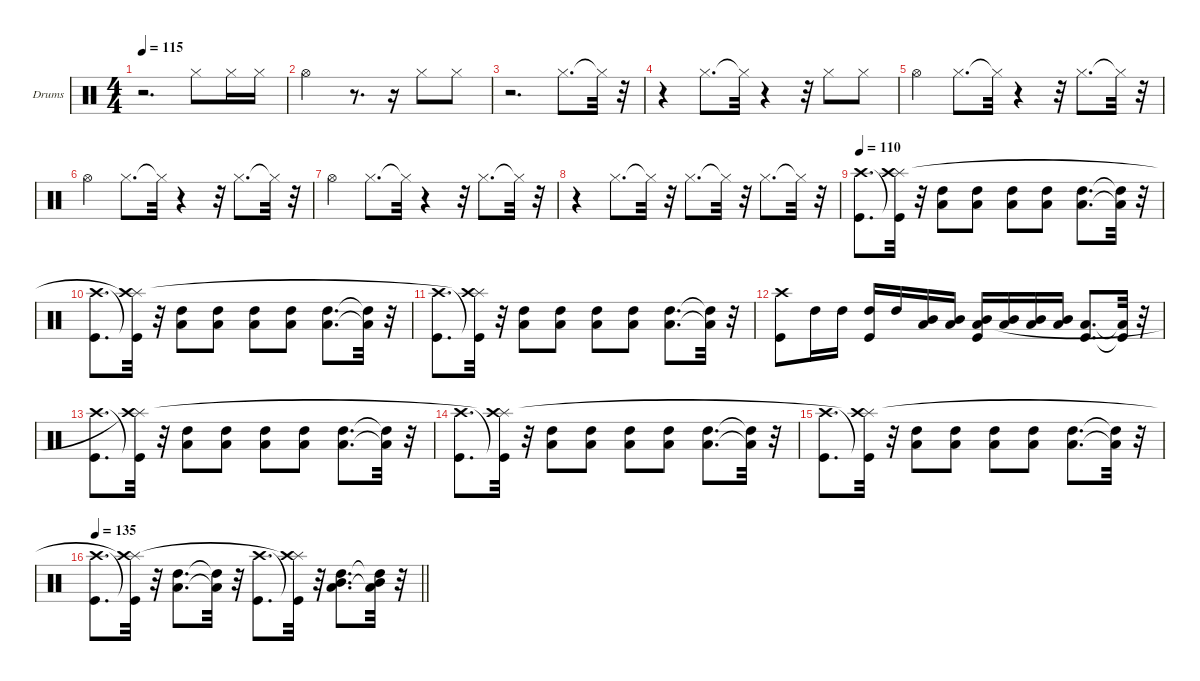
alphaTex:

\hideDynamics
\bracketExtendMode groupsimilarinstruments
\firstSystemTrackNameOrientation horizontal
\otherSystemsTrackNameOrientation horizontal
\track ("Drumkit" "Drums") {solo instrument percussion}
\staff {score}
\articulation defaults
\ts (4 4)
\tempo 115
\clef neutral
\scale
0.333333
\ks c
r.2{d dy fff} "Hi-Hat (closed)".8 "Hi-Hat (closed)".16 "Hi-Hat (closed)".16 |
\scale
0.333333 "Hi-Hat (open)".2 r.8{d} r.16 "Hi-Hat (closed)".8 "Hi-Hat (closed)".8 |
\scale
0.333333 r.2{d} "Hi-Hat (closed)".8{d} "Hi-Hat (closed)"{t}.32 r.32 |
\scale
0.333333 r.4 "Hi-Hat (closed)".8{d} "Hi-Hat (closed)"{t}.32 r.4 r.32 "Hi-Hat (closed)".8 "Hi-Hat (closed)".8 |
\scale
0.333333 "Hi-Hat (open)".4 "Hi-Hat (closed)".8{d} "Hi-Hat (closed)"{t}.32 r.4 r.32 "Hi-Hat (closed)".8{d} "Hi-Hat (closed)"{t}.32 r.32 |
\scale
0.333333 "Hi-Hat (open)".4 "Hi-Hat (closed)".8{d} "Hi-Hat (closed)"{t}.32 r.4 r.32 "Hi-Hat (closed)".8{d} "Hi-Hat (closed)"{t}.32 r.32 |
\scale
0.333333 "Hi-Hat (open)".4 "Hi-Hat (closed)".8{d} "Hi-Hat (closed)"{t}.32 r.4 r.32 "Hi-Hat (closed)".8{d} "Hi-Hat (closed)"{t}.32 r.32 |
\scale
0.333333 r.4 "Hi-Hat (closed)".8{d} "Hi-Hat (closed)"{t}.32 r.32 "Hi-Hat (closed)".8{d} "Hi-Hat (closed)"{t}.32 r.32 "Hi-Hat (closed)".8{d} "Hi-Hat (closed)"{t}.32 r.32 |
\tempo 110
\scale
0.333333 ("Kick (hit)" "Crash high (hit)").8{d} ("Splash (hit)" "Kick (hit)"{t} "Crash high (hit)").32 r.32 ("High Tom (hit)" "Low Tom (hit)").8 ("High Tom (hit)" "Low Tom (hit)").8 ("High Tom (hit)" "Low Tom (hit)").8 ("High Tom (hit)" "Low Tom (hit)").8 ("High Tom (hit)" "Low Tom (hit)").8{d} ("High Tom (hit)"{t} "Low Tom (hit)"{t}).32 r.32 |
\scale
0.333333 ("Kick (hit)" "Crash high (hit)").8{d} ("Splash (hit)" "Kick (hit)"{t} "Crash high (hit)"{t}).32 r.32 ("High Tom (hit)" "Low Tom (hit)").8 ("High Tom (hit)" "Low Tom (hit)").8 ("High Tom (hit)" "Low Tom (hit)").8 ("High Tom (hit)" "Low Tom (hit)").8 ("High Tom (hit)" "Low Tom (hit)").8{d} ("High Tom (hit)"{t} "Low Tom (hit)"{t}).32 r.32 |
\scale
0.333333 ("Kick (hit)" "Crash high (hit)").8{d} ("Splash (hit)" "Kick (hit)"{t} "Crash high (hit)"{t}).32 r.32 ("High Tom (hit)" "Low Tom (hit)").8 ("High Tom (hit)" "Low Tom (hit)").8 ("High Tom (hit)" "Low Tom (hit)").8 ("High Tom (hit)" "Low Tom (hit)").8 ("High Tom (hit)" "Low Tom (hit)").8{d} ("High Tom (hit)"{t} "Low Tom (hit)"{t}).32 r.32 |
\scale
0.333333 ("Kick (hit)" "Crash high (hit)").8 "High Tom (hit)".16 "High Tom (hit)".16 ("High Tom (hit)" "Kick (hit)").16 "High Tom (hit)".16 ("Mid Tom (hit)" "Low Tom (hit)").16 ("Mid Tom (hit)" "Low Tom (hit)").16 ("Mid Tom (hit)" "Kick (hit)" "Low Tom (hit)").16 ("Mid Tom (hit)" "Low Tom (hit)").16 ("Mid Tom (hit)" "Low Tom (hit)").16 ("Mid Tom (hit)" "Low Tom (hit)").16 ("Kick (hit)" "Low Tom (hit)").8{d} ("Kick (hit)"{t} "Low Tom (hit)"{t}).32 r.32 |
\scale
0.333333 ("Kick (hit)" "Crash high (hit)").8{d} ("Splash (hit)" "Kick (hit)"{t} "Crash high (hit)"{t}).32 r.32 ("High Tom (hit)" "Low Tom (hit)").8 ("High Tom (hit)" "Low Tom (hit)").8 ("High Tom (hit)" "Low Tom (hit)").8 ("High Tom (hit)" "Low Tom (hit)").8 ("High Tom (hit)" "Low Tom (hit)").8{d} ("High Tom (hit)"{t} "Low Tom (hit)"{t}).32 r.32 |
\scale
0.333333 ("Kick (hit)" "Crash high (hit)").8{d} ("Splash (hit)" "Kick (hit)"{t} "Crash high (hit)"{t}).32 r.32 ("High Tom (hit)" "Low Tom (hit)").8 ("High Tom (hit)" "Low Tom (hit)").8 ("High Tom (hit)" "Low Tom (hit)").8 ("High Tom (hit)" "Low Tom (hit)").8 ("High Tom (hit)" "Low Tom (hit)").8{d} ("High Tom (hit)"{t} "Low Tom (hit)"{t}).32 r.32 |
\scale
0.333333 ("Kick (hit)" "Crash high (hit)").8{d} ("Splash (hit)" "Kick (hit)"{t} "Crash high (hit)"{t}).32 r.32 ("High Tom (hit)" "Low Tom (hit)").8 ("High Tom (hit)" "Low Tom (hit)").8 ("High Tom (hit)" "Low Tom (hit)").8 ("High Tom (hit)" "Low Tom (hit)").8 ("High Tom (hit)" "Low Tom (hit)").8{d} ("High Tom (hit)"{t} "Low Tom (hit)"{t}).32 r.32 |
\tempo 135
\scale
0.333333
\barLineRight lightlight
("Kick (hit)" "Crash high (hit)").8{d} ("Splash (hit)" "Kick (hit)"{t} "Crash high (hit)"{t}).32 r.32 ("High Tom (hit)" "Low Tom (hit)").8{d} ("High Tom (hit)"{t} "Low Tom (hit)"{t}).32 r.32 ("Kick (hit)" "Crash high (hit)").8{d} ("Splash (hit)" "Kick (hit)"{t} "Crash high (hit)"{t}).32 r.32 ("High Tom (hit)" "Low Tom (hit)" "Mid Tom (hit)").8{d} ("High Tom (hit)"{t} "Low Tom (hit)"{t} "Mid Tom (hit)").32 r.32
